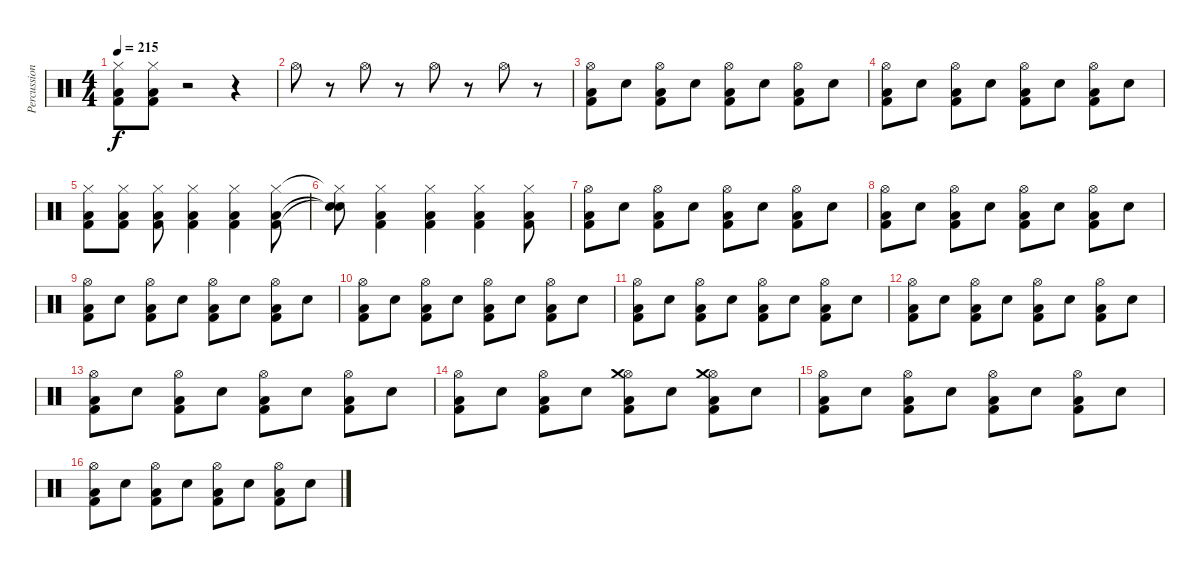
\track ("Percussion" "Percussion") {instrument percussion}
\staff {score}
\articulation defaults
\ts (4 4)
\tempo 215
\clef neutral
\ks c
("Hi-Hat (closed)" "Kick (hit) 2" "Low Floor Tom (hit)").8{dy f} ("Hi-Hat (closed)" "Kick (hit) 2" "Low Floor Tom (hit)").8 r.2 r.4 |
"Hi-Hat (open)".8 r.8 "Hi-Hat (open)".8 r.8 "Hi-Hat (open)".8 r.8 "Hi-Hat (open)".8 r.8 |
("Hi-Hat (open)" "Kick (hit) 2" "Low Floor Tom (hit)").8 "Electric Snare (hit)".8 ("Hi-Hat (open)" "Kick (hit) 2" "Low Floor Tom (hit)").8 "Electric Snare (hit)".8 ("Hi-Hat (open)" "Kick (hit) 2" "Low Floor Tom (hit)").8 "Electric Snare (hit)".8 ("Hi-Hat (open)" "Kick (hit) 2" "Low Floor Tom (hit)").8 "Electric Snare (hit)".8 |
("Hi-Hat (open)" "Kick (hit) 2" "Low Floor Tom (hit)").8 "Electric Snare (hit)".8 ("Hi-Hat (open)" "Kick (hit) 2" "Low Floor Tom (hit)").8 "Electric Snare (hit)".8 ("Hi-Hat (open)" "Kick (hit) 2" "Low Floor Tom (hit)").8 "Electric Snare (hit)".8 ("Hi-Hat (open)" "Kick (hit) 2" "Low Floor Tom (hit)").8 "Electric Snare (hit)".8 |
("Hi-Hat (closed)" "Kick (hit) 2" "Low Floor Tom (hit)").8 ("Hi-Hat (closed)" "Kick (hit) 2" "Low Floor Tom (hit)").8 ("Hi-Hat (closed)" "Kick (hit) 2" "Low Floor Tom (hit)").8 ("Hi-Hat (closed)" "Kick (hit) 2" "Low Floor Tom (hit)").4 ("Hi-Hat (closed)" "Kick (hit) 2" "Low Floor Tom (hit)").4 ("Hi-Hat (closed)" "Kick (hit) 2" "Low Floor Tom (hit)").8 |
("Hi-Hat (closed)"{t} "Snare (hit)"{t} "Snare (hit)"{t}).8 ("Hi-Hat (closed)" "Kick (hit) 2" "Low Floor Tom (hit)").4 ("Hi-Hat (closed)" "Kick (hit) 2" "Low Floor Tom (hit)").4 ("Hi-Hat (closed)" "Kick (hit) 2" "Low Floor Tom (hit)").4 ("Hi-Hat (closed)" "Kick (hit) 2" "Low Floor Tom (hit)").8 |
("Hi-Hat (open)" "Kick (hit) 2" "Low Floor Tom (hit)").8 "Electric Snare (hit)".8 ("Hi-Hat (open)" "Kick (hit) 2" "Low Floor Tom (hit)").8 "Electric Snare (hit)".8 ("Hi-Hat (open)" "Kick (hit) 2" "Low Floor Tom (hit)").8 "Electric Snare (hit)".8 ("Hi-Hat (open)" "Kick (hit) 2" "Low Floor Tom (hit)").8 "Electric Snare (hit)".8 |
("Hi-Hat (open)" "Kick (hit) 2" "Low Floor Tom (hit)").8 "Electric Snare (hit)".8 ("Hi-Hat (open)" "Kick (hit) 2" "Low Floor Tom (hit)").8 "Electric Snare (hit)".8 ("Hi-Hat (open)" "Kick (hit) 2" "Low Floor Tom (hit)").8 "Electric Snare (hit)".8 ("Hi-Hat (open)" "Kick (hit) 2" "Low Floor Tom (hit)").8 "Electric Snare (hit)".8 |
("Hi-Hat (open)" "Kick (hit) 2" "Low Floor Tom (hit)").8 "Electric Snare (hit)".8 ("Hi-Hat (open)" "Kick (hit) 2" "Low Floor Tom (hit)").8 "Electric Snare (hit)".8 ("Hi-Hat (open)" "Kick (hit) 2" "Low Floor Tom (hit)").8 "Electric Snare (hit)".8 ("Hi-Hat (open)" "Kick (hit) 2" "Low Floor Tom (hit)").8 "Electric Snare (hit)".8 |
("Hi-Hat (open)" "Kick (hit) 2" "Low Floor Tom (hit)").8 "Electric Snare (hit)".8 ("Hi-Hat (open)" "Kick (hit) 2" "Low Floor Tom (hit)").8 "Electric Snare (hit)".8 ("Hi-Hat (open)" "Kick (hit) 2" "Low Floor Tom (hit)").8 "Electric Snare (hit)".8 ("Hi-Hat (open)" "Kick (hit) 2" "Low Floor Tom (hit)").8 "Electric Snare (hit)".8 |
("Hi-Hat (open)" "Kick (hit) 2" "Low Floor Tom (hit)").8 "Electric Snare (hit)".8 ("Hi-Hat (open)" "Kick (hit) 2" "Low Floor Tom (hit)").8 "Electric Snare (hit)".8 ("Hi-Hat (open)" "Kick (hit) 2" "Low Floor Tom (hit)").8 "Electric Snare (hit)".8 ("Hi-Hat (open)" "Kick (hit) 2" "Low Floor Tom (hit)").8 "Electric Snare (hit)".8 |
("Hi-Hat (open)" "Kick (hit) 2" "Low Floor Tom (hit)").8 "Electric Snare (hit)".8 ("Hi-Hat (open)" "Kick (hit) 2" "Low Floor Tom (hit)").8 "Electric Snare (hit)".8 ("Hi-Hat (open)" "Kick (hit) 2" "Low Floor Tom (hit)").8 "Electric Snare (hit)".8 ("Hi-Hat (open)" "Kick (hit) 2" "Low Floor Tom (hit)").8 "Electric Snare (hit)".8 |
("Hi-Hat (open)" "Kick (hit) 2" "Low Floor Tom (hit)").8 "Electric Snare (hit)".8 ("Hi-Hat (open)" "Kick (hit) 2" "Low Floor Tom (hit)").8 "Electric Snare (hit)".8 ("Hi-Hat (open)" "Kick (hit) 2" "Low Floor Tom (hit)").8 "Electric Snare (hit)".8 ("Hi-Hat (open)" "Kick (hit) 2" "Low Floor Tom (hit)").8 "Electric Snare (hit)".8 |
("Hi-Hat (open)" "Kick (hit) 2" "Low Floor Tom (hit)").8 "Electric Snare (hit)".8 ("Hi-Hat (open)" "Kick (hit) 2" "Low Floor Tom (hit)").8 "Electric Snare (hit)".8 ("Hi-Hat (open)" "Crash medium (hit)" "Kick (hit) 2" "Low Floor Tom (hit)").8 "Electric Snare (hit)".8 ("Hi-Hat (open)" "Crash medium (hit)" "Kick (hit) 2" "Low Floor Tom (hit)").8 "Electric Snare (hit)".8 |
("Hi-Hat (open)" "Kick (hit) 2" "Low Floor Tom (hit)").8 "Electric Snare (hit)".8 ("Hi-Hat (open)" "Kick (hit) 2" "Low Floor Tom (hit)").8 "Electric Snare (hit)".8 ("Hi-Hat (open)" "Kick (hit) 2" "Low Floor Tom (hit)").8 "Electric Snare (hit)".8 ("Hi-Hat (open)" "Kick (hit) 2" "Low Floor Tom (hit)").8 "Electric Snare (hit)".8 |
("Hi-Hat (open)" "Kick (hit) 2" "Low Floor Tom (hit)").8 "Electric Snare (hit)".8 ("Hi-Hat (open)" "Kick (hit) 2" "Low Floor Tom (hit)").8 "Electric Snare (hit)".8 ("Hi-Hat (open)" "Kick (hit) 2" "Low Floor Tom (hit)").8 "Electric Snare (hit)".8 ("Hi-Hat (open)" "Kick (hit) 2" "Low Floor Tom (hit)").8 "Electric Snare (hit)".8
